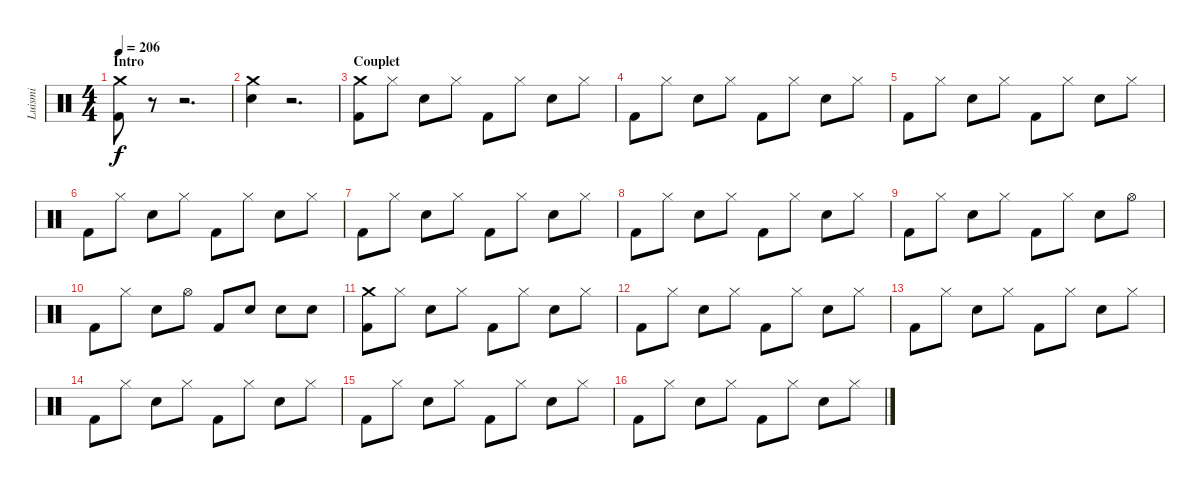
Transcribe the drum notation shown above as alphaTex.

\track ("Luismi" "Luismi") {instrument percussion}
\staff {score}
\articulation defaults
\ts (4 4)
\section ("" "Intro")
\tempo 206
\clef neutral
\ks c
("Crash medium (hit)" "Kick (hit) 2").8{dy f} r.8 r.2{d} |
("Crash medium (hit)" "Snare (hit) 2").4 r.2{d} |
\section ("" "Couplet")
("Crash medium (hit)" "Kick (hit) 2").8 "Hi-Hat (closed)".8 "Snare (hit) 2".8 "Hi-Hat (closed)".8 "Kick (hit) 2".8 "Hi-Hat (closed)".8 "Snare (hit) 2".8 "Hi-Hat (closed)".8 |
"Kick (hit) 2".8 "Hi-Hat (closed)".8 "Snare (hit) 2".8 "Hi-Hat (closed)".8 "Kick (hit) 2".8 "Hi-Hat (closed)".8 "Snare (hit) 2".8 "Hi-Hat (closed)".8 |
"Kick (hit) 2".8 "Hi-Hat (closed)".8 "Snare (hit) 2".8 "Hi-Hat (closed)".8 "Kick (hit) 2".8 "Hi-Hat (closed)".8 "Snare (hit) 2".8 "Hi-Hat (closed)".8 |
"Kick (hit) 2".8 "Hi-Hat (closed)".8 "Snare (hit) 2".8 "Hi-Hat (closed)".8 "Kick (hit) 2".8 "Hi-Hat (closed)".8 "Snare (hit) 2".8 "Hi-Hat (closed)".8 |
"Kick (hit) 2".8 "Hi-Hat (closed)".8 "Snare (hit) 2".8 "Hi-Hat (closed)".8 "Kick (hit) 2".8 "Hi-Hat (closed)".8 "Snare (hit) 2".8 "Hi-Hat (closed)".8 |
"Kick (hit) 2".8 "Hi-Hat (closed)".8 "Snare (hit) 2".8 "Hi-Hat (closed)".8 "Kick (hit) 2".8 "Hi-Hat (closed)".8 "Snare (hit) 2".8 "Hi-Hat (closed)".8 |
"Kick (hit) 2".8 "Hi-Hat (closed)".8 "Snare (hit) 2".8 "Hi-Hat (closed)".8 "Kick (hit) 2".8 "Hi-Hat (closed)".8 "Snare (hit) 2".8 "Hi-Hat (open)".8 |
"Kick (hit) 2".8 "Hi-Hat (closed)".8 "Snare (hit) 2".8 "Hi-Hat (open)".8 "Kick (hit) 2".8 "Snare (hit) 2".8 "Snare (hit) 2".8 "Snare (hit) 2".8 |
("Crash medium (hit)" "Kick (hit) 2").8 "Hi-Hat (closed)".8 "Snare (hit) 2".8 "Hi-Hat (closed)".8 "Kick (hit) 2".8 "Hi-Hat (closed)".8 "Snare (hit) 2".8 "Hi-Hat (closed)".8 |
"Kick (hit) 2".8 "Hi-Hat (closed)".8 "Snare (hit) 2".8 "Hi-Hat (closed)".8 "Kick (hit) 2".8 "Hi-Hat (closed)".8 "Snare (hit) 2".8 "Hi-Hat (closed)".8 |
"Kick (hit) 2".8 "Hi-Hat (closed)".8 "Snare (hit) 2".8 "Hi-Hat (closed)".8 "Kick (hit) 2".8 "Hi-Hat (closed)".8 "Snare (hit) 2".8 "Hi-Hat (closed)".8 |
"Kick (hit) 2".8 "Hi-Hat (closed)".8 "Snare (hit) 2".8 "Hi-Hat (closed)".8 "Kick (hit) 2".8 "Hi-Hat (closed)".8 "Snare (hit) 2".8 "Hi-Hat (closed)".8 |
"Kick (hit) 2".8 "Hi-Hat (closed)".8 "Snare (hit) 2".8 "Hi-Hat (closed)".8 "Kick (hit) 2".8 "Hi-Hat (closed)".8 "Snare (hit) 2".8 "Hi-Hat (closed)".8 |
"Kick (hit) 2".8 "Hi-Hat (closed)".8 "Snare (hit) 2".8 "Hi-Hat (closed)".8 "Kick (hit) 2".8 "Hi-Hat (closed)".8 "Snare (hit) 2".8 "Hi-Hat (closed)".8
